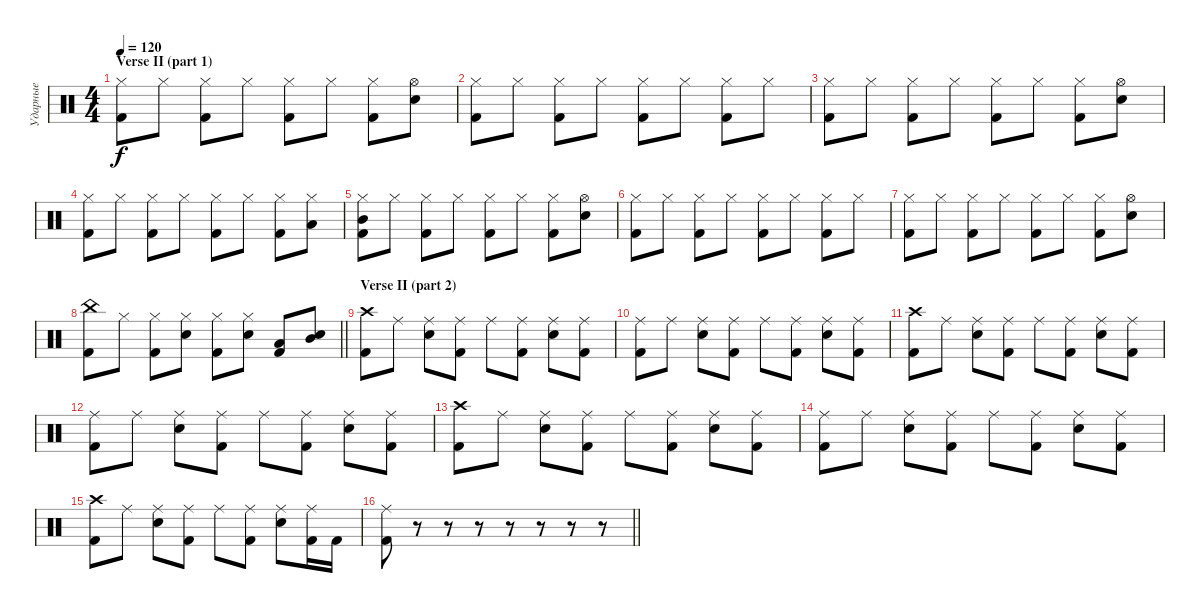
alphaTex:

\track ("Ударные" "Ударные") {instrument percussion}
\staff {score}
\articulation defaults
\ts (4 4)
\section ("" "Verse II (part 1)")
\tempo 120
\clef neutral
\ks c
("Hi-Hat (closed)" "Kick (hit) 2").8{dy f} "Hi-Hat (closed)".8 ("Hi-Hat (closed)" "Kick (hit) 2").8 "Hi-Hat (closed)".8 ("Hi-Hat (closed)" "Kick (hit) 2").8 "Hi-Hat (closed)".8 ("Hi-Hat (closed)" "Kick (hit) 2").8 ("Hi-Hat (open)" "Electric Snare (hit)").8 |
("Hi-Hat (closed)" "Kick (hit) 2").8 "Hi-Hat (closed)".8 ("Hi-Hat (closed)" "Kick (hit) 2").8 "Hi-Hat (closed)".8 ("Hi-Hat (closed)" "Kick (hit) 2").8 "Hi-Hat (closed)".8 ("Hi-Hat (closed)" "Kick (hit) 2").8 "Hi-Hat (closed)".8 |
("Hi-Hat (closed)" "Kick (hit) 2").8 "Hi-Hat (closed)".8 ("Hi-Hat (closed)" "Kick (hit) 2").8 "Hi-Hat (closed)".8 ("Hi-Hat (closed)" "Kick (hit) 2").8 "Hi-Hat (closed)".8 ("Hi-Hat (closed)" "Kick (hit) 2").8 ("Hi-Hat (open)" "Electric Snare (hit)").8 |
("Hi-Hat (closed)" "Kick (hit) 2").8 "Hi-Hat (closed)".8 ("Hi-Hat (closed)" "Kick (hit) 2").8 "Hi-Hat (closed)".8 ("Hi-Hat (closed)" "Kick (hit) 2").8 "Hi-Hat (closed)".8 ("Hi-Hat (closed)" "Kick (hit) 2").8 ("Hi-Hat (closed)" "Low Tom (hit)").8 |
("Hi-Hat (closed)" "Mid Tom (hit)" "Kick (hit) 2").8 "Hi-Hat (closed)".8 ("Hi-Hat (closed)" "Kick (hit) 2").8 "Hi-Hat (closed)".8 ("Hi-Hat (closed)" "Kick (hit) 2").8 "Hi-Hat (closed)".8 ("Hi-Hat (closed)" "Kick (hit) 2").8 ("Hi-Hat (open)" "Electric Snare (hit)").8 |
("Hi-Hat (closed)" "Kick (hit) 2").8 "Hi-Hat (closed)".8 ("Hi-Hat (closed)" "Kick (hit) 2").8 "Hi-Hat (closed)".8 ("Hi-Hat (closed)" "Kick (hit) 2").8 "Hi-Hat (closed)".8 ("Hi-Hat (closed)" "Kick (hit) 2").8 "Hi-Hat (closed)".8 |
("Hi-Hat (closed)" "Kick (hit) 2").8 "Hi-Hat (closed)".8 ("Hi-Hat (closed)" "Kick (hit) 2").8 "Hi-Hat (closed)".8 ("Hi-Hat (closed)" "Kick (hit) 2").8 "Hi-Hat (closed)".8 ("Hi-Hat (closed)" "Kick (hit) 2").8 ("Hi-Hat (open)" "Electric Snare (hit)").8 |
\barLineRight lightlight
("China (hit)" "Kick (hit) 2").8 "Hi-Hat (closed)".8 ("Hi-Hat (closed)" "Kick (hit) 2").8 ("Hi-Hat (closed)" "Electric Snare (hit)").8 ("Hi-Hat (closed)" "Kick (hit) 2").8 ("Hi-Hat (closed)" "Electric Snare (hit)").8 ("Low Tom (hit)" "Kick (hit) 2").8 ("Mid Tom (hit)" "Electric Snare (hit)").8 |
\section ("" "Verse II (part 2)")
("Crash high (hit)" "Kick (hit) 2").8 "Ride (middle)".8 ("Ride (middle)" "Electric Snare (hit)").8 ("Ride (middle)" "Kick (hit) 2").8 "Ride (middle)".8 ("Ride (middle)" "Kick (hit) 2").8 ("Ride (middle)" "Electric Snare (hit)").8 ("Ride (middle)" "Kick (hit) 2").8 |
("Ride (middle)" "Kick (hit) 2").8 "Ride (middle)".8 ("Ride (middle)" "Electric Snare (hit)").8 ("Ride (middle)" "Kick (hit) 2").8 "Ride (middle)".8 ("Ride (middle)" "Kick (hit) 2").8 ("Ride (middle)" "Electric Snare (hit)").8 ("Ride (middle)" "Kick (hit) 2").8 |
("Crash high (hit)" "Kick (hit) 2").8 "Ride (middle)".8 ("Ride (middle)" "Electric Snare (hit)").8 ("Ride (middle)" "Kick (hit) 2").8 "Ride (middle)".8 ("Ride (middle)" "Kick (hit) 2").8 ("Ride (middle)" "Electric Snare (hit)").8 ("Ride (middle)" "Kick (hit) 2").8 |
("Ride (middle)" "Kick (hit) 2").8 "Ride (middle)".8 ("Ride (middle)" "Electric Snare (hit)").8 ("Ride (middle)" "Kick (hit) 2").8 "Ride (middle)".8 ("Ride (middle)" "Kick (hit) 2").8 ("Ride (middle)" "Electric Snare (hit)").8 ("Ride (middle)" "Kick (hit) 2").8 |
("Crash high (hit)" "Kick (hit) 2").8 "Ride (middle)".8 ("Ride (middle)" "Electric Snare (hit)").8 ("Ride (middle)" "Kick (hit) 2").8 "Ride (middle)".8 ("Ride (middle)" "Kick (hit) 2").8 ("Ride (middle)" "Electric Snare (hit)").8 ("Ride (middle)" "Kick (hit) 2").8 |
("Ride (middle)" "Kick (hit) 2").8 "Ride (middle)".8 ("Ride (middle)" "Electric Snare (hit)").8 ("Ride (middle)" "Kick (hit) 2").8 "Ride (middle)".8 ("Ride (middle)" "Kick (hit) 2").8 ("Ride (middle)" "Electric Snare (hit)").8 ("Ride (middle)" "Kick (hit) 2").8 |
("Crash high (hit)" "Kick (hit) 2").8 "Ride (middle)".8 ("Ride (middle)" "Electric Snare (hit)").8 ("Ride (middle)" "Kick (hit) 2").8 "Ride (middle)".8 ("Ride (middle)" "Kick (hit) 2").8 ("Ride (middle)" "Electric Snare (hit)").8 ("Ride (middle)" "Kick (hit) 2").16 "Kick (hit) 2".16 |
\barLineRight lightlight
("Ride (middle)" "Kick (hit) 2").8 r.8 r.8 r.8 r.8 r.8 r.8 r.8
